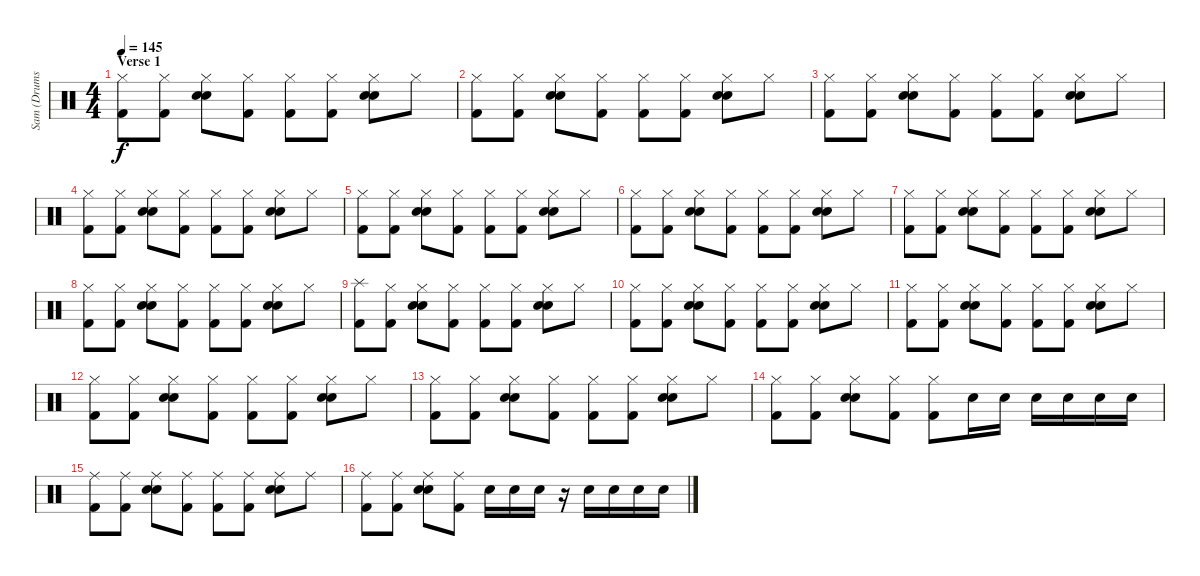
\track ("Sam (Drums)" "Sam (Drums") {instrument percussion}
\staff {score}
\articulation defaults
\ts (4 4)
\section ("" "Verse 1")
\tempo 145
\clef neutral
\ks c
("Hi-Hat (closed)" "Kick (hit) 2").8{dy f} ("Hi-Hat (closed)" "Kick (hit) 2").8 ("Hi-Hat (closed)" "Electric Snare (hit)" "Snare (hit) 2").8 ("Hi-Hat (closed)" "Kick (hit) 2").8 ("Hi-Hat (closed)" "Kick (hit) 2").8 ("Hi-Hat (closed)" "Kick (hit) 2").8 ("Hi-Hat (closed)" "Electric Snare (hit)" "Snare (hit) 2").8 "Hi-Hat (closed)".8 |
("Hi-Hat (closed)" "Kick (hit) 2").8 ("Hi-Hat (closed)" "Kick (hit) 2").8 ("Hi-Hat (closed)" "Electric Snare (hit)" "Snare (hit) 2").8 ("Hi-Hat (closed)" "Kick (hit) 2").8 ("Hi-Hat (closed)" "Kick (hit) 2").8 ("Hi-Hat (closed)" "Kick (hit) 2").8 ("Hi-Hat (closed)" "Electric Snare (hit)" "Snare (hit) 2").8 "Hi-Hat (closed)".8 |
("Hi-Hat (closed)" "Kick (hit) 2").8 ("Hi-Hat (closed)" "Kick (hit) 2").8 ("Hi-Hat (closed)" "Electric Snare (hit)" "Snare (hit) 2").8 ("Hi-Hat (closed)" "Kick (hit) 2").8 ("Hi-Hat (closed)" "Kick (hit) 2").8 ("Hi-Hat (closed)" "Kick (hit) 2").8 ("Hi-Hat (closed)" "Electric Snare (hit)" "Snare (hit) 2").8 "Hi-Hat (closed)".8 |
("Hi-Hat (closed)" "Kick (hit) 2").8 ("Hi-Hat (closed)" "Kick (hit) 2").8 ("Hi-Hat (closed)" "Electric Snare (hit)" "Snare (hit) 2").8 ("Hi-Hat (closed)" "Kick (hit) 2").8 ("Hi-Hat (closed)" "Kick (hit) 2").8 ("Hi-Hat (closed)" "Kick (hit) 2").8 ("Hi-Hat (closed)" "Electric Snare (hit)" "Snare (hit) 2").8 "Hi-Hat (closed)".8 |
("Hi-Hat (closed)" "Kick (hit) 2").8 ("Hi-Hat (closed)" "Kick (hit) 2").8 ("Hi-Hat (closed)" "Electric Snare (hit)" "Snare (hit) 2").8 ("Hi-Hat (closed)" "Kick (hit) 2").8 ("Hi-Hat (closed)" "Kick (hit) 2").8 ("Hi-Hat (closed)" "Kick (hit) 2").8 ("Hi-Hat (closed)" "Electric Snare (hit)" "Snare (hit) 2").8 "Hi-Hat (closed)".8 |
("Hi-Hat (closed)" "Kick (hit) 2").8 ("Hi-Hat (closed)" "Kick (hit) 2").8 ("Hi-Hat (closed)" "Electric Snare (hit)" "Snare (hit) 2").8 ("Hi-Hat (closed)" "Kick (hit) 2").8 ("Hi-Hat (closed)" "Kick (hit) 2").8 ("Hi-Hat (closed)" "Kick (hit) 2").8 ("Hi-Hat (closed)" "Electric Snare (hit)" "Snare (hit) 2").8 "Hi-Hat (closed)".8 |
("Hi-Hat (closed)" "Kick (hit) 2").8 ("Hi-Hat (closed)" "Kick (hit) 2").8 ("Hi-Hat (closed)" "Electric Snare (hit)" "Snare (hit) 2").8 ("Hi-Hat (closed)" "Kick (hit) 2").8 ("Hi-Hat (closed)" "Kick (hit) 2").8 ("Hi-Hat (closed)" "Kick (hit) 2").8 ("Hi-Hat (closed)" "Electric Snare (hit)" "Snare (hit) 2").8 "Hi-Hat (closed)".8 |
("Hi-Hat (closed)" "Kick (hit) 2").8 ("Hi-Hat (closed)" "Kick (hit) 2").8 ("Hi-Hat (closed)" "Electric Snare (hit)" "Snare (hit) 2").8 ("Hi-Hat (closed)" "Kick (hit) 2").8 ("Hi-Hat (closed)" "Kick (hit) 2").8 ("Hi-Hat (closed)" "Kick (hit) 2").8 ("Hi-Hat (closed)" "Electric Snare (hit)" "Snare (hit) 2").8 "Hi-Hat (closed)".8 |
("Splash (hit)" "Kick (hit) 2").8 ("Hi-Hat (closed)" "Kick (hit) 2").8 ("Hi-Hat (closed)" "Electric Snare (hit)" "Snare (hit) 2").8 ("Hi-Hat (closed)" "Kick (hit) 2").8 ("Hi-Hat (closed)" "Kick (hit) 2").8 ("Hi-Hat (closed)" "Kick (hit) 2").8 ("Hi-Hat (closed)" "Electric Snare (hit)" "Snare (hit) 2").8 "Hi-Hat (closed)".8 |
("Hi-Hat (closed)" "Kick (hit) 2").8 ("Hi-Hat (closed)" "Kick (hit) 2").8 ("Hi-Hat (closed)" "Electric Snare (hit)" "Snare (hit) 2").8 ("Hi-Hat (closed)" "Kick (hit) 2").8 ("Hi-Hat (closed)" "Kick (hit) 2").8 ("Hi-Hat (closed)" "Kick (hit) 2").8 ("Hi-Hat (closed)" "Electric Snare (hit)" "Snare (hit) 2").8 "Hi-Hat (closed)".8 |
("Hi-Hat (closed)" "Kick (hit) 2").8 ("Hi-Hat (closed)" "Kick (hit) 2").8 ("Hi-Hat (closed)" "Electric Snare (hit)" "Snare (hit) 2").8 ("Hi-Hat (closed)" "Kick (hit) 2").8 ("Hi-Hat (closed)" "Kick (hit) 2").8 ("Hi-Hat (closed)" "Kick (hit) 2").8 ("Hi-Hat (closed)" "Electric Snare (hit)" "Snare (hit) 2").8 "Hi-Hat (closed)".8 |
("Hi-Hat (closed)" "Kick (hit) 2").8 ("Hi-Hat (closed)" "Kick (hit) 2").8 ("Hi-Hat (closed)" "Electric Snare (hit)" "Snare (hit) 2").8 ("Hi-Hat (closed)" "Kick (hit) 2").8 ("Hi-Hat (closed)" "Kick (hit) 2").8 ("Hi-Hat (closed)" "Kick (hit) 2").8 ("Hi-Hat (closed)" "Electric Snare (hit)" "Snare (hit) 2").8 "Hi-Hat (closed)".8 |
("Hi-Hat (closed)" "Kick (hit) 2").8 ("Hi-Hat (closed)" "Kick (hit) 2").8 ("Hi-Hat (closed)" "Electric Snare (hit)" "Snare (hit) 2").8 ("Hi-Hat (closed)" "Kick (hit) 2").8 ("Hi-Hat (closed)" "Kick (hit) 2").8 ("Hi-Hat (closed)" "Kick (hit) 2").8 ("Hi-Hat (closed)" "Electric Snare (hit)" "Snare (hit) 2").8 "Hi-Hat (closed)".8 |
("Hi-Hat (closed)" "Kick (hit) 2").8 ("Hi-Hat (closed)" "Kick (hit) 2").8 ("Hi-Hat (closed)" "Electric Snare (hit)" "Snare (hit) 2").8 ("Hi-Hat (closed)" "Kick (hit) 2").8 ("Hi-Hat (closed)" "Kick (hit) 2").8 "Electric Snare (hit)".16 "Electric Snare (hit)".16 "Electric Snare (hit)".16 "Electric Snare (hit)".16 "Electric Snare (hit)".16 "Electric Snare (hit)".16 |
("Ride (middle)" "Kick (hit) 2").8 ("Ride (middle)" "Kick (hit) 2").8 ("Ride (middle)" "Electric Snare (hit)" "Snare (hit) 2").8 ("Ride (middle)" "Kick (hit) 2").8 ("Ride (middle)" "Kick (hit) 2").8 ("Ride (middle)" "Kick (hit) 2").8 ("Ride (middle)" "Electric Snare (hit)" "Snare (hit) 2").8 "Ride (middle)".8 |
("Ride (middle)" "Kick (hit) 2").8 ("Ride (middle)" "Kick (hit) 2").8 ("Ride (middle)" "Electric Snare (hit)" "Snare (hit) 2").8 ("Ride (middle)" "Kick (hit) 2").8 "Electric Snare (hit)".16 "Electric Snare (hit)".16 "Electric Snare (hit)".16 r.16 "Electric Snare (hit)".16 "Electric Snare (hit)".16 "Electric Snare (hit)".16 "Electric Snare (hit)".16
